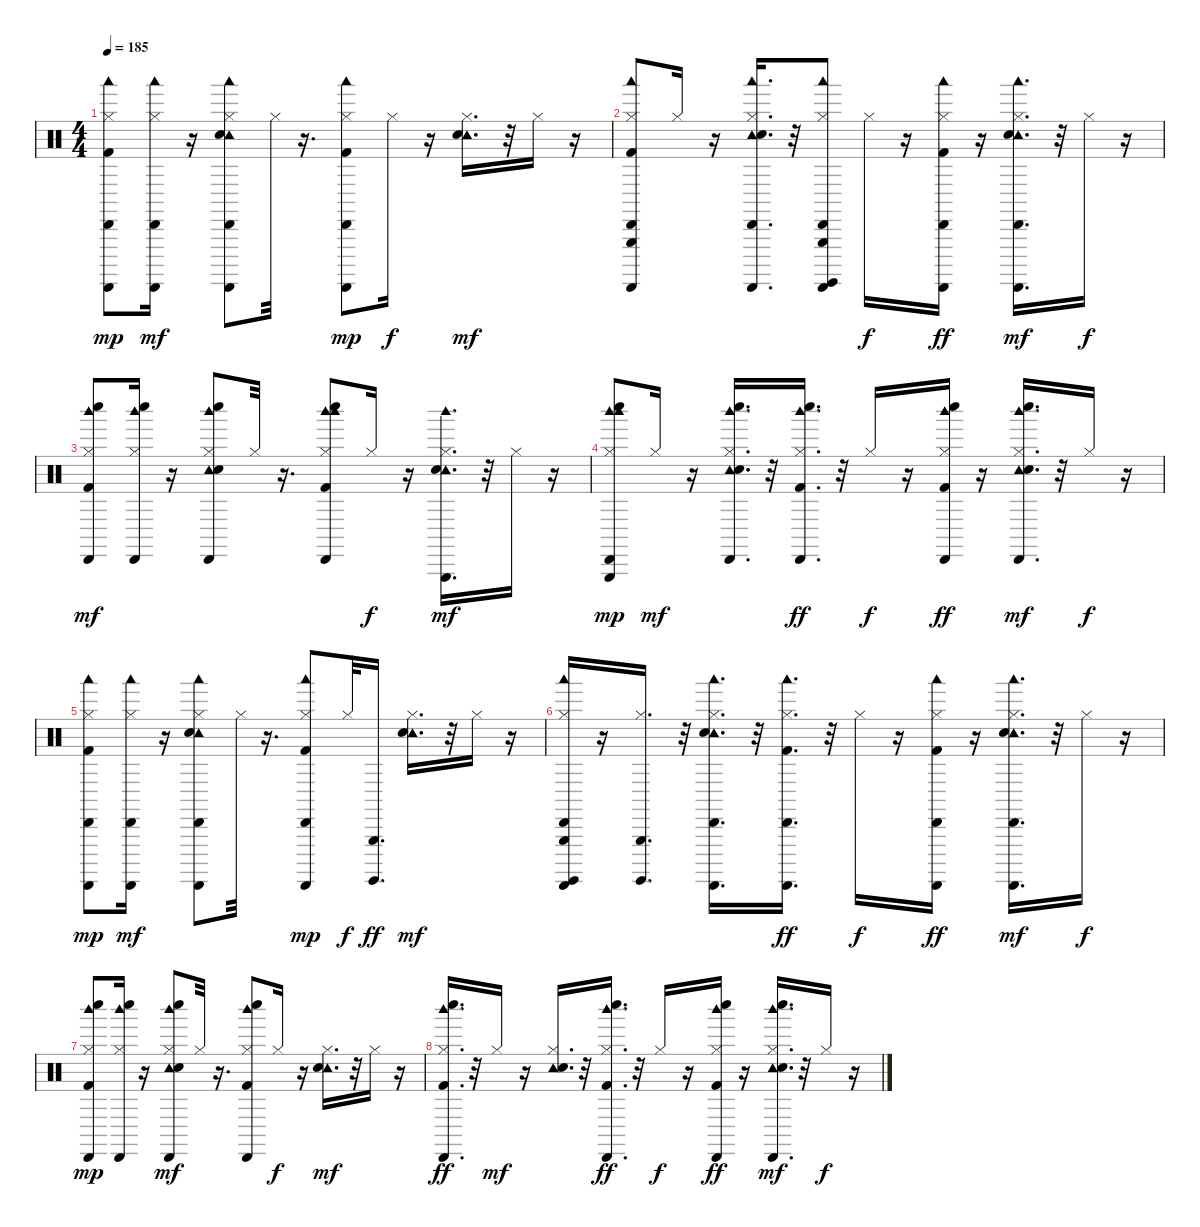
\track "" {instrument percussion}
\staff {score}
\articulation defaults
\ts (4 4)
\tempo 185
\clef neutral
\ks c
("Woodblock low (hit)" "Cabasa (hit)" "Guiro (scrap-return)" "Hi-Hat (closed)" "Kick (hit) 2").8{dy mp} ("Woodblock low (hit)" "Cabasa (hit)" "Guiro (scrap-return)" "Hi-Hat (closed)").16{dy mf} r.16 ("Guiro (scrap-return)" "Woodblock low (hit)" "Cabasa (hit)" "Tambourine (hit)" "Hi-Hat (closed)" "Snare (hit) 2").8 "Hi-Hat (closed)".32 r.16{d} ("Woodblock low (hit)" "Guiro (scrap-return)" "Cabasa (hit)" "Hi-Hat (closed)" "Kick (hit) 2").8{dy mp} "Hi-Hat (closed)".16{dy f} r.16 ("Tambourine (hit)" "Hi-Hat (closed)" "Snare (hit) 2").16{d dy mf} r.32 "Hi-Hat (closed)".16 r.16 |
("Cabasa (hit)" "Woodblock low (hit)" "Guiro (scrap-return)" "Hi-Hat (closed)" "Kick (hit) 2" "Triangle (hit)").8 "Hi-Hat (closed)".16 r.16 ("Cabasa (hit)" "Woodblock low (hit)" "Guiro (scrap-return)" "Tambourine (hit)" "Hi-Hat (closed)" "Snare (hit) 2").16{d} r.32 ("Woodblock low (hit)" "Cabasa (hit)" "Guiro (scrap-return)" "Surdo (hit)" "Triangle (hit)" "Hi-Hat (closed)").8 "Hi-Hat (closed)".16{dy f} r.16 ("Cabasa (hit)" "Woodblock low (hit)" "Guiro (scrap-return)" "Hi-Hat (closed)" "Kick (hit) 2").16{dy ff} r.16 ("Woodblock low (hit)" "Cabasa (hit)" "Guiro (scrap-return)" "Tambourine (hit)" "Hi-Hat (closed)" "Snare (hit) 2").16{d dy mf} r.32 "Hi-Hat (closed)".16{dy f} r.16 |
("Cabasa (hit)" "Whistle low (hit)" "Woodblock high (hit)" "Hi-Hat (closed)" "Kick (hit) 2").8{dy mf} ("Cabasa (hit)" "Whistle low (hit)" "Woodblock high (hit)" "Hi-Hat (closed)").16 r.16 ("Whistle low (hit)" "Cabasa (hit)" "Woodblock high (hit)" "Tambourine (hit)" "Hi-Hat (closed)" "Snare (hit) 2").8 "Hi-Hat (closed)".32 r.16{d} ("Whistle low (hit)" "Woodblock high (hit)" "Cabasa (hit)" "Hi-Hat (closed)" "Kick (hit) 2" "Woodblock high (hit)").8 "Hi-Hat (closed)".16{dy f} r.16 ("Tambourine (hit)" "Hi-Hat (closed)" "Snare (hit) 2" "Triangle (hit)" "Woodblock high (hit)").16{d dy mf} r.32 "Hi-Hat (closed)".16 r.16 |
("Triangle (hit)" "Woodblock high (hit)" "Cabasa (hit)" "Whistle low (hit)" "Woodblock high (hit)" "Hi-Hat (closed)").8{dy mp} "Hi-Hat (closed)".16{dy mf} r.16 ("Whistle low (hit)" "Cabasa (hit)" "Woodblock high (hit)" "Tambourine (hit)" "Hi-Hat (closed)" "Snare (hit) 2").16{d} r.32 ("Whistle low (hit)" "Cabasa (hit)" "Woodblock high (hit)" "Hi-Hat (closed)" "Kick (hit) 2").16{d dy ff} r.32 "Hi-Hat (closed)".16{dy f} r.16 ("Woodblock high (hit)" "Cabasa (hit)" "Whistle low (hit)" "Hi-Hat (closed)" "Kick (hit) 2").16{dy ff} r.16 ("Whistle low (hit)" "Cabasa (hit)" "Woodblock high (hit)" "Tambourine (hit)" "Hi-Hat (closed)" "Snare (hit) 2").16{d dy mf} r.32 "Hi-Hat (closed)".16{dy f} r.16 |
("Woodblock low (hit)" "Cabasa (hit)" "Guiro (scrap-return)" "Hi-Hat (closed)" "Kick (hit) 2").8{dy mp} ("Cabasa (hit)" "Woodblock low (hit)" "Guiro (scrap-return)" "Hi-Hat (closed)").16{dy mf} r.16 ("Guiro (scrap-return)" "Cabasa (hit)" "Woodblock low (hit)" "Tambourine (hit)" "Hi-Hat (closed)" "Snare (hit) 2").8 "Hi-Hat (closed)".32 r.16{d} ("Woodblock low (hit)" "Guiro (scrap-return)" "Cabasa (hit)" "Hi-Hat (closed)" "Kick (hit) 2").8{dy mp} "Hi-Hat (closed)".32{dy f} ("Triangle (hit)" "Surdo (hit)").16{d dy ff} ("Tambourine (hit)" "Hi-Hat (closed)" "Snare (hit) 2").16{d dy mf} r.32 "Hi-Hat (closed)".16 r.16 |
("Cabasa (hit)" "Woodblock low (hit)" "Guiro (scrap-return)" "Surdo (hit)" "Triangle (hit)" "Hi-Hat (closed)").16 r.16 ("Hi-Hat (closed)" "Surdo (hit)" "Triangle (hit)").16{d} r.32 ("Cabasa (hit)" "Woodblock low (hit)" "Guiro (scrap-return)" "Tambourine (hit)" "Hi-Hat (closed)" "Snare (hit) 2").16{d} r.32 ("Cabasa (hit)" "Woodblock low (hit)" "Guiro (scrap-return)" "Hi-Hat (closed)" "Kick (hit) 2").16{d dy ff} r.32 "Hi-Hat (closed)".16{dy f} r.16 ("Woodblock low (hit)" "Cabasa (hit)" "Guiro (scrap-return)" "Hi-Hat (closed)" "Kick (hit) 2").16{dy ff} r.16 ("Woodblock low (hit)" "Guiro (scrap-return)" "Cabasa (hit)" "Tambourine (hit)" "Hi-Hat (closed)" "Snare (hit) 2").16{d dy mf} r.32 "Hi-Hat (closed)".16{dy f} r.16 |
("Whistle low (hit)" "Cabasa (hit)" "Woodblock high (hit)" "Hi-Hat (closed)" "Kick (hit) 2").8{dy mp} ("Cabasa (hit)" "Whistle low (hit)" "Woodblock high (hit)" "Hi-Hat (closed)").16 r.16 ("Cabasa (hit)" "Whistle low (hit)" "Woodblock high (hit)" "Tambourine (hit)" "Hi-Hat (closed)" "Snare (hit) 2").8{dy mf} "Hi-Hat (closed)".32 r.16{d} ("Cabasa (hit)" "Whistle low (hit)" "Woodblock high (hit)" "Hi-Hat (closed)" "Kick (hit) 2").8 "Hi-Hat (closed)".16{dy f} r.16 ("Tambourine (hit)" "Hi-Hat (closed)" "Snare (hit) 2").16{d dy mf} r.32 "Hi-Hat (closed)".16 r.16 |
("Cabasa (hit)" "Whistle low (hit)" "Woodblock high (hit)" "Hi-Hat (closed)" "Kick (hit) 2").16{d dy ff} r.32 "Hi-Hat (closed)".16{dy mf} r.16 ("Tambourine (hit)" "Hi-Hat (closed)" "Snare (hit) 2").16{d} r.32 ("Whistle low (hit)" "Cabasa (hit)" "Woodblock high (hit)" "Hi-Hat (closed)" "Kick (hit) 2").16{d dy ff} r.32 "Hi-Hat (closed)".16{dy f} r.16 ("Cabasa (hit)" "Whistle low (hit)" "Woodblock high (hit)" "Hi-Hat (closed)" "Kick (hit) 2").16{dy ff} r.16 ("Cabasa (hit)" "Whistle low (hit)" "Woodblock high (hit)" "Tambourine (hit)" "Hi-Hat (closed)" "Snare (hit) 2").16{d dy mf} r.32 "Hi-Hat (closed)".16{dy f} r.16
